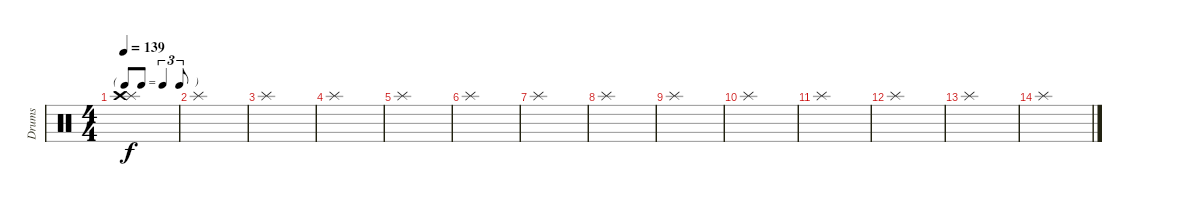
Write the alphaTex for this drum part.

\track ("Drums" "Drums") {instrument percussion}
\staff {score}
\articulation defaults
\ts (4 4)
\tf triplet8th
\tempo 139
\clef neutral
\ks c
("Splash (hit)" "Crash high (hit)").1{dy f} |
"Splash (hit)".1 |
"Splash (hit)".1 |
"Splash (hit)".1 |
"Splash (hit)".1 |
"Splash (hit)".1 |
"Splash (hit)".1 |
"Splash (hit)".1 |
"Splash (hit)".1 |
"Splash (hit)".1 |
"Splash (hit)".1 |
"Splash (hit)".1 |
"Splash (hit)".1 |
"Splash (hit)".1
